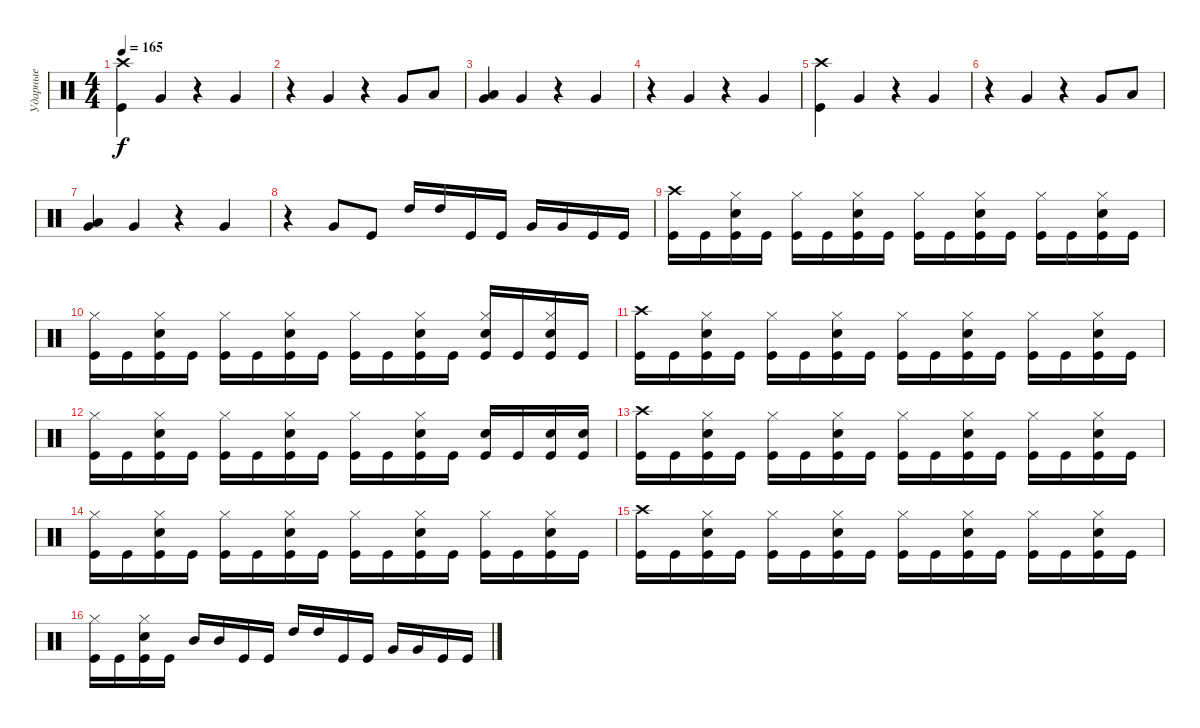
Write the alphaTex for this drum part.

\track ("Ударные" "Ударные") {instrument percussion}
\staff {score}
\articulation defaults
\ts (4 4)
\tempo 165
\clef neutral
\ks c
("Crash high (hit)" "Kick (hit)").4{dy f} "Very Low Tom (hit)".4 r.4 "Very Low Tom (hit)".4 |
r.4 "Very Low Tom (hit)".4 r.4 "Very Low Tom (hit)".8 "Low Tom (hit)".8 |
("Very Low Tom (hit)" "Low Tom (hit)").4 "Very Low Tom (hit)".4 r.4 "Very Low Tom (hit)".4 |
r.4 "Very Low Tom (hit)".4 r.4 "Very Low Tom (hit)".4 |
("Crash high (hit)" "Kick (hit)").4 "Very Low Tom (hit)".4 r.4 "Very Low Tom (hit)".4 |
r.4 "Very Low Tom (hit)".4 r.4 "Very Low Tom (hit)".8 "Low Tom (hit)".8 |
("Very Low Tom (hit)" "Low Tom (hit)").4 "Very Low Tom (hit)".4 r.4 "Very Low Tom (hit)".4 |
r.4 "Very Low Tom (hit)".8 "Kick (hit)".8 "High Tom (hit)".16 "High Tom (hit)".16 "Kick (hit)".16 "Kick (hit)".16 "Very Low Tom (hit)".16 "Very Low Tom (hit)".16 "Kick (hit)".16 "Kick (hit)".16 |
("Crash high (hit)" "Kick (hit)").16 "Kick (hit)".16 ("Hi-Hat (closed)" "Electric Snare (hit)" "Kick (hit)").16 "Kick (hit)".16 ("Hi-Hat (closed)" "Kick (hit)").16 "Kick (hit)".16 ("Hi-Hat (closed)" "Electric Snare (hit)" "Kick (hit)").16 "Kick (hit)".16 ("Hi-Hat (closed)" "Kick (hit)").16 "Kick (hit)".16 ("Hi-Hat (closed)" "Electric Snare (hit)" "Kick (hit)").16 "Kick (hit)".16 ("Hi-Hat (closed)" "Kick (hit)").16 "Kick (hit)".16 ("Hi-Hat (closed)" "Electric Snare (hit)" "Kick (hit)").16 "Kick (hit)".16 |
("Hi-Hat (closed)" "Kick (hit)").16 "Kick (hit)".16 ("Hi-Hat (closed)" "Electric Snare (hit)" "Kick (hit)").16 "Kick (hit)".16 ("Hi-Hat (closed)" "Kick (hit)").16 "Kick (hit)".16 ("Hi-Hat (closed)" "Electric Snare (hit)" "Kick (hit)").16 "Kick (hit)".16 ("Hi-Hat (closed)" "Kick (hit)").16 "Kick (hit)".16 ("Hi-Hat (closed)" "Electric Snare (hit)" "Kick (hit)").16 "Kick (hit)".16 ("Hi-Hat (closed)" "Electric Snare (hit)" "Kick (hit)").16 "Kick (hit)".16 ("Hi-Hat (closed)" "Electric Snare (hit)" "Kick (hit)").16 "Kick (hit)".16 |
("Crash high (hit)" "Kick (hit)").16 "Kick (hit)".16 ("Hi-Hat (closed)" "Electric Snare (hit)" "Kick (hit)").16 "Kick (hit)".16 ("Hi-Hat (closed)" "Kick (hit)").16 "Kick (hit)".16 ("Hi-Hat (closed)" "Electric Snare (hit)" "Kick (hit)").16 "Kick (hit)".16 ("Hi-Hat (closed)" "Kick (hit)").16 "Kick (hit)".16 ("Hi-Hat (closed)" "Electric Snare (hit)" "Kick (hit)").16 "Kick (hit)".16 ("Hi-Hat (closed)" "Kick (hit)").16 "Kick (hit)".16 ("Hi-Hat (closed)" "Electric Snare (hit)" "Kick (hit)").16 "Kick (hit)".16 |
("Hi-Hat (closed)" "Kick (hit)").16 "Kick (hit)".16 ("Hi-Hat (closed)" "Electric Snare (hit)" "Kick (hit)").16 "Kick (hit)".16 ("Hi-Hat (closed)" "Kick (hit)").16 "Kick (hit)".16 ("Hi-Hat (closed)" "Electric Snare (hit)" "Kick (hit)").16 "Kick (hit)".16 ("Hi-Hat (closed)" "Kick (hit)").16 "Kick (hit)".16 ("Hi-Hat (closed)" "Electric Snare (hit)" "Kick (hit)").16 "Kick (hit)".16 ("Electric Snare (hit)" "Kick (hit)").16 "Kick (hit)".16 ("Electric Snare (hit)" "Kick (hit)").16 ("Electric Snare (hit)" "Kick (hit)").16 |
("Crash high (hit)" "Kick (hit)").16 "Kick (hit)".16 ("Hi-Hat (closed)" "Electric Snare (hit)" "Kick (hit)").16 "Kick (hit)".16 ("Hi-Hat (closed)" "Kick (hit)").16 "Kick (hit)".16 ("Hi-Hat (closed)" "Electric Snare (hit)" "Kick (hit)").16 "Kick (hit)".16 ("Hi-Hat (closed)" "Kick (hit)").16 "Kick (hit)".16 ("Hi-Hat (closed)" "Electric Snare (hit)" "Kick (hit)").16 "Kick (hit)".16 ("Hi-Hat (closed)" "Kick (hit)").16 "Kick (hit)".16 ("Hi-Hat (closed)" "Electric Snare (hit)" "Kick (hit)").16 "Kick (hit)".16 |
("Hi-Hat (closed)" "Kick (hit)").16 "Kick (hit)".16 ("Hi-Hat (closed)" "Electric Snare (hit)" "Kick (hit)").16 "Kick (hit)".16 ("Hi-Hat (closed)" "Kick (hit)").16 "Kick (hit)".16 ("Hi-Hat (closed)" "Electric Snare (hit)" "Kick (hit)").16 "Kick (hit)".16 ("Hi-Hat (closed)" "Kick (hit)").16 "Kick (hit)".16 ("Hi-Hat (closed)" "Electric Snare (hit)" "Kick (hit)").16 "Kick (hit)".16 ("Hi-Hat (closed)" "Kick (hit)").16 "Kick (hit)".16 ("Hi-Hat (closed)" "Electric Snare (hit)" "Kick (hit)").16 "Kick (hit)".16 |
("Crash high (hit)" "Kick (hit)").16 "Kick (hit)".16 ("Hi-Hat (closed)" "Electric Snare (hit)" "Kick (hit)").16 "Kick (hit)".16 ("Hi-Hat (closed)" "Kick (hit)").16 "Kick (hit)".16 ("Hi-Hat (closed)" "Electric Snare (hit)" "Kick (hit)").16 "Kick (hit)".16 ("Hi-Hat (closed)" "Kick (hit)").16 "Kick (hit)".16 ("Hi-Hat (closed)" "Electric Snare (hit)" "Kick (hit)").16 "Kick (hit)".16 ("Hi-Hat (closed)" "Kick (hit)").16 "Kick (hit)".16 ("Hi-Hat (closed)" "Electric Snare (hit)" "Kick (hit)").16 "Kick (hit)".16 |
("Hi-Hat (closed)" "Kick (hit)").16 "Kick (hit)".16 ("Hi-Hat (closed)" "Electric Snare (hit)" "Kick (hit)").16 "Kick (hit)".16 "Mid Tom (hit)".16 "Mid Tom (hit)".16 "Kick (hit)".16 "Kick (hit)".16 "High Tom (hit)".16 "High Tom (hit)".16 "Kick (hit)".16 "Kick (hit)".16 "Very Low Tom (hit)".16 "Very Low Tom (hit)".16 "Kick (hit)".16 "Kick (hit)".16
